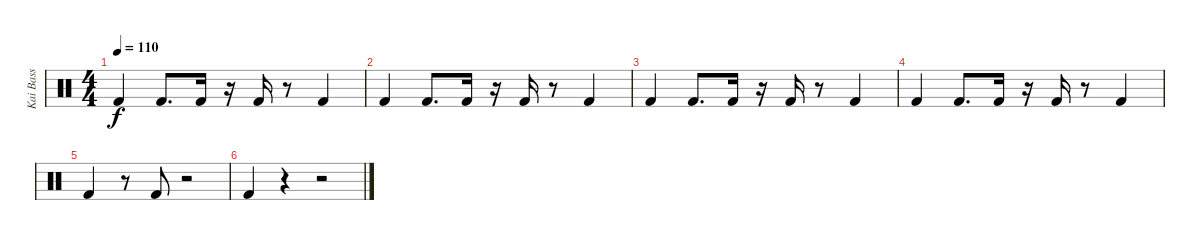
\track ("Kai Bass" "Kai Bass") {instrument percussion}
\staff {score}
\articulation defaults
\ts (4 4)
\tempo 110
\clef neutral
\ks c "Kick (hit) 2".4{dy f} "Kick (hit) 2".8{d} "Kick (hit) 2".16
r.16 "Kick (hit) 2".16 r.8 "Kick (hit) 2".4 |
"Kick (hit) 2".4 "Kick (hit) 2".8{d} "Kick (hit) 2".16 r.16 "Kick (hit) 2".16 r.8 "Kick (hit) 2".4 |
"Kick (hit) 2".4 "Kick (hit) 2".8{d} "Kick (hit) 2".16 r.16 "Kick (hit) 2".16 r.8 "Kick (hit) 2".4 |
"Kick (hit) 2".4 "Kick (hit) 2".8{d} "Kick (hit) 2".16 r.16 "Kick (hit) 2".16 r.8 "Kick (hit) 2".4 |
"Kick (hit) 2".4 r.8 "Kick (hit) 2".8 r.2 |
"Kick (hit) 2".4 r.4 r.2
